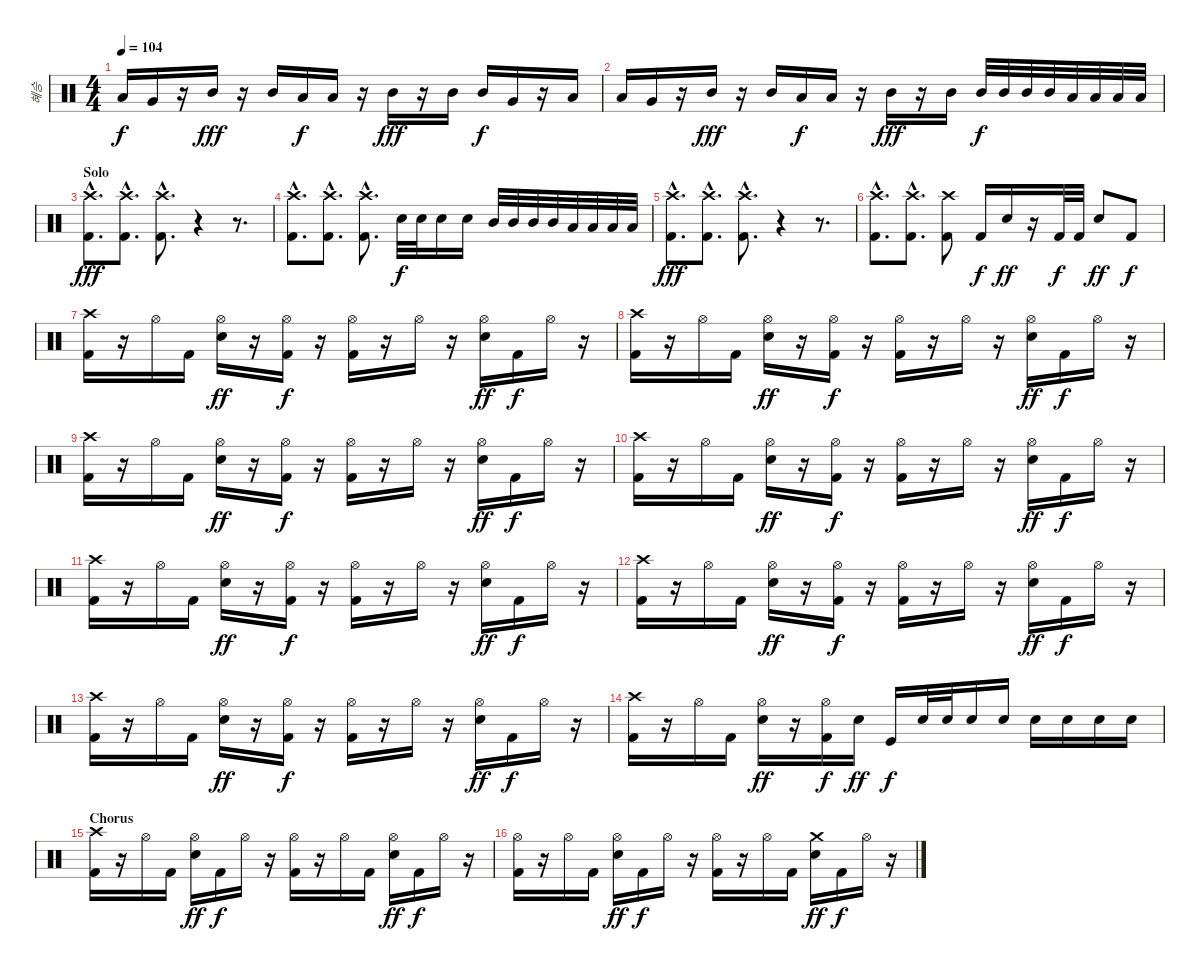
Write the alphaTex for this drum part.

\track ("혜승" "혜승") {instrument percussion}
\staff {score}
\articulation defaults
\ts (4 4)
\tempo 104
\clef neutral
\ks c "Low Tom (hit)".16{dy f} "Very Low Tom (hit)".16
r.16 "Mid Tom (hit)".16{dy fff} r.16 "Mid Tom (hit)".16 "Low Tom (hit)".16{dy f} "Low Tom (hit)".16 r.16 "Mid Tom (hit)".16{dy fff} r.16 "Mid Tom (hit)".16 "Mid Tom (hit)".16{dy f} "Very Low Tom (hit)".16 r.16 "Low Tom (hit)".16 |
"Low Tom (hit)".16 "Very Low Tom (hit)".16 r.16 "Mid Tom (hit)".16{dy fff} r.16 "Mid Tom (hit)".16 "Low Tom (hit)".16{dy f} "Low Tom (hit)".16 r.16 "Mid Tom (hit)".16{dy fff} r.16 "Mid Tom (hit)".16 "Mid Tom (hit)".32{dy f} "Mid Tom (hit)".32 "Mid Tom (hit)".32 "Mid Tom (hit)".32 "Low Tom (hit)".32 "Low Tom (hit)".32 "Low Tom (hit)".32 "Low Tom (hit)".32 |
\section ("" "Solo")
("Crash high (hit)" "Kick (hit) 2"{hac}).8{d dy fff} ("Crash high (hit)"{hac} "Kick (hit) 2"{hac}).8{d} ("Crash high (hit)"{hac} "Kick (hit) 2"{hac}).8{d} r.4 r.8{d} |
("Crash high (hit)" "Kick (hit) 2"{hac}).8{d} ("Crash high (hit)"{hac} "Kick (hit) 2"{hac}).8{d} ("Crash high (hit)"{hac} "Kick (hit) 2"{hac}).8{d} "Electric Snare (hit)".32{dy f} "Electric Snare (hit)".32 "Electric Snare (hit)".16 "Electric Snare (hit)".16 "Mid Tom (hit)".32 "Mid Tom (hit)".32 "Mid Tom (hit)".32 "Mid Tom (hit)".32 "Low Tom (hit)".32 "Low Tom (hit)".32 "Low Tom (hit)".32 "Low Tom (hit)".32 |
("Crash high (hit)" "Kick (hit) 2"{hac}).8{d dy fff} ("Crash high (hit)"{hac} "Kick (hit) 2"{hac}).8{d} ("Crash high (hit)"{hac} "Kick (hit) 2"{hac}).8{d} r.4 r.8{d} |
("Crash high (hit)" "Kick (hit) 2"{hac}).8{d} ("Crash high (hit)"{hac} "Kick (hit) 2"{hac}).8{d} ("Crash high (hit)" "Kick (hit) 2").8 "Kick (hit) 2".16{dy f} "Electric Snare (hit)".16{dy ff} r.16 "Kick (hit) 2".32{dy f} "Kick (hit) 2".32 "Electric Snare (hit)".8{dy ff} "Kick (hit) 2".8{dy f} |
("Crash high (hit)" "Kick (hit) 2").16 r.16 "Hi-Hat (open)".16 "Kick (hit) 2".16 ("Hi-Hat (open)" "Electric Snare (hit)").16{dy ff} r.16 ("Hi-Hat (open)" "Kick (hit) 2").16{dy f} r.16 ("Hi-Hat (open)" "Kick (hit) 2").16 r.16 "Hi-Hat (open)".16 r.16 ("Hi-Hat (open)" "Electric Snare (hit)").16{dy ff} "Kick (hit) 2".16{dy f} "Hi-Hat (open)".16 r.16 |
("Crash high (hit)" "Kick (hit) 2").16 r.16 "Hi-Hat (open)".16 "Kick (hit) 2".16 ("Hi-Hat (open)" "Electric Snare (hit)").16{dy ff} r.16 ("Hi-Hat (open)" "Kick (hit) 2").16{dy f} r.16 ("Hi-Hat (open)" "Kick (hit) 2").16 r.16 "Hi-Hat (open)".16 r.16 ("Hi-Hat (open)" "Electric Snare (hit)").16{dy ff} "Kick (hit) 2".16{dy f} "Hi-Hat (open)".16 r.16 |
("Crash high (hit)" "Kick (hit) 2").16 r.16 "Hi-Hat (open)".16 "Kick (hit) 2".16 ("Hi-Hat (open)" "Electric Snare (hit)").16{dy ff} r.16 ("Hi-Hat (open)" "Kick (hit) 2").16{dy f} r.16 ("Hi-Hat (open)" "Kick (hit) 2").16 r.16 "Hi-Hat (open)".16 r.16 ("Hi-Hat (open)" "Electric Snare (hit)").16{dy ff} "Kick (hit) 2".16{dy f} "Hi-Hat (open)".16 r.16 |
("Crash high (hit)" "Kick (hit) 2").16 r.16 "Hi-Hat (open)".16 "Kick (hit) 2".16 ("Hi-Hat (open)" "Electric Snare (hit)").16{dy ff} r.16 ("Hi-Hat (open)" "Kick (hit) 2").16{dy f} r.16 ("Hi-Hat (open)" "Kick (hit) 2").16 r.16 "Hi-Hat (open)".16 r.16 ("Hi-Hat (open)" "Electric Snare (hit)").16{dy ff} "Kick (hit) 2".16{dy f} "Hi-Hat (open)".16 r.16 |
("Crash high (hit)" "Kick (hit) 2").16 r.16 "Hi-Hat (open)".16 "Kick (hit) 2".16 ("Hi-Hat (open)" "Electric Snare (hit)").16{dy ff} r.16 ("Hi-Hat (open)" "Kick (hit) 2").16{dy f} r.16 ("Hi-Hat (open)" "Kick (hit) 2").16 r.16 "Hi-Hat (open)".16 r.16 ("Hi-Hat (open)" "Electric Snare (hit)").16{dy ff} "Kick (hit) 2".16{dy f} "Hi-Hat (open)".16 r.16 |
("Crash high (hit)" "Kick (hit) 2").16 r.16 "Hi-Hat (open)".16 "Kick (hit) 2".16 ("Hi-Hat (open)" "Electric Snare (hit)").16{dy ff} r.16 ("Hi-Hat (open)" "Kick (hit) 2").16{dy f} r.16 ("Hi-Hat (open)" "Kick (hit) 2").16 r.16 "Hi-Hat (open)".16 r.16 ("Hi-Hat (open)" "Electric Snare (hit)").16{dy ff} "Kick (hit) 2".16{dy f} "Hi-Hat (open)".16 r.16 |
("Crash high (hit)" "Kick (hit) 2").16 r.16 "Hi-Hat (open)".16 "Kick (hit) 2".16 ("Hi-Hat (open)" "Electric Snare (hit)").16{dy ff} r.16 ("Hi-Hat (open)" "Kick (hit) 2").16{dy f} r.16 ("Hi-Hat (open)" "Kick (hit) 2").16 r.16 "Hi-Hat (open)".16 r.16 ("Hi-Hat (open)" "Electric Snare (hit)").16{dy ff} "Kick (hit) 2".16{dy f} "Hi-Hat (open)".16 r.16 |
("Crash high (hit)" "Kick (hit) 2").16 r.16 "Hi-Hat (open)".16 "Kick (hit) 2".16 ("Hi-Hat (open)" "Electric Snare (hit)").16{dy ff} r.16 ("Hi-Hat (open)" "Kick (hit) 2").16{dy f} "Electric Snare (hit)".16{dy ff} "Kick (hit)".16{dy f} "Electric Snare (hit)".32 "Electric Snare (hit)".32 "Electric Snare (hit)".16 "Electric Snare (hit)".16 "Electric Snare (hit)".16 "Electric Snare (hit)".16 "Electric Snare (hit)".16 "Electric Snare (hit)".16 |
\section ("" "Chorus")
("Crash high (hit)" "Kick (hit) 2").16 r.16 "Hi-Hat (open)".16 "Kick (hit) 2".16 ("Hi-Hat (open)" "Electric Snare (hit)").16{dy ff} "Kick (hit) 2".16{dy f} "Hi-Hat (open)".16 r.16 ("Hi-Hat (open)" "Kick (hit) 2").16 r.16 "Hi-Hat (open)".16 "Kick (hit) 2".16 ("Hi-Hat (open)" "Electric Snare (hit)").16{dy ff} "Kick (hit) 2".16{dy f} "Hi-Hat (open)".16 r.16 |
("Hi-Hat (open)" "Kick (hit) 2").16 r.16 "Hi-Hat (open)".16 "Kick (hit) 2".16 ("Hi-Hat (open)" "Electric Snare (hit)").16{dy ff} "Kick (hit) 2".16{dy f} "Hi-Hat (open)".16 r.16 ("Hi-Hat (open)" "Kick (hit) 2").16 r.16 "Hi-Hat (open)".16 "Kick (hit) 2".16 ("Crash medium (hit)" "Electric Snare (hit)").16{dy ff} "Kick (hit) 2".16{dy f} "Hi-Hat (open)".16 r.16
